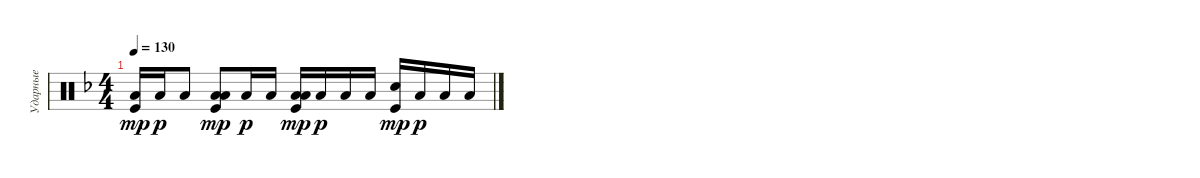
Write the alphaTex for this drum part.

\track ("Ударные" "Ударные") {instrument percussion}
\staff {score}
\articulation defaults
\ts (4 4)
\tempo 130
\clef neutral
\ks dminor
("Low Tom (hit)" "Kick (hit)").16{dy mp} "Low Tom (hit)".16{dy p} "Low Tom (hit)".8{bd 240} ("Low Tom (hit)" "Kick (hit)" "Low Tom (hit)").8{bd 240 dy mp} "Low Tom (hit)".16{dy p} "Low Tom (hit)".16 ("Low Tom (hit)" "Kick (hit)" "Low Tom (hit)").16{bd 240 dy mp} "Low Tom (hit)".16{dy p} "Low Tom (hit)".16 "Low Tom (hit)".16 ("Kick (hit)" "Snare (hit) 2").16{dy mp} "Low Tom (hit)".16{dy p} "Low Tom (hit)".16 "Low Tom (hit)".16
